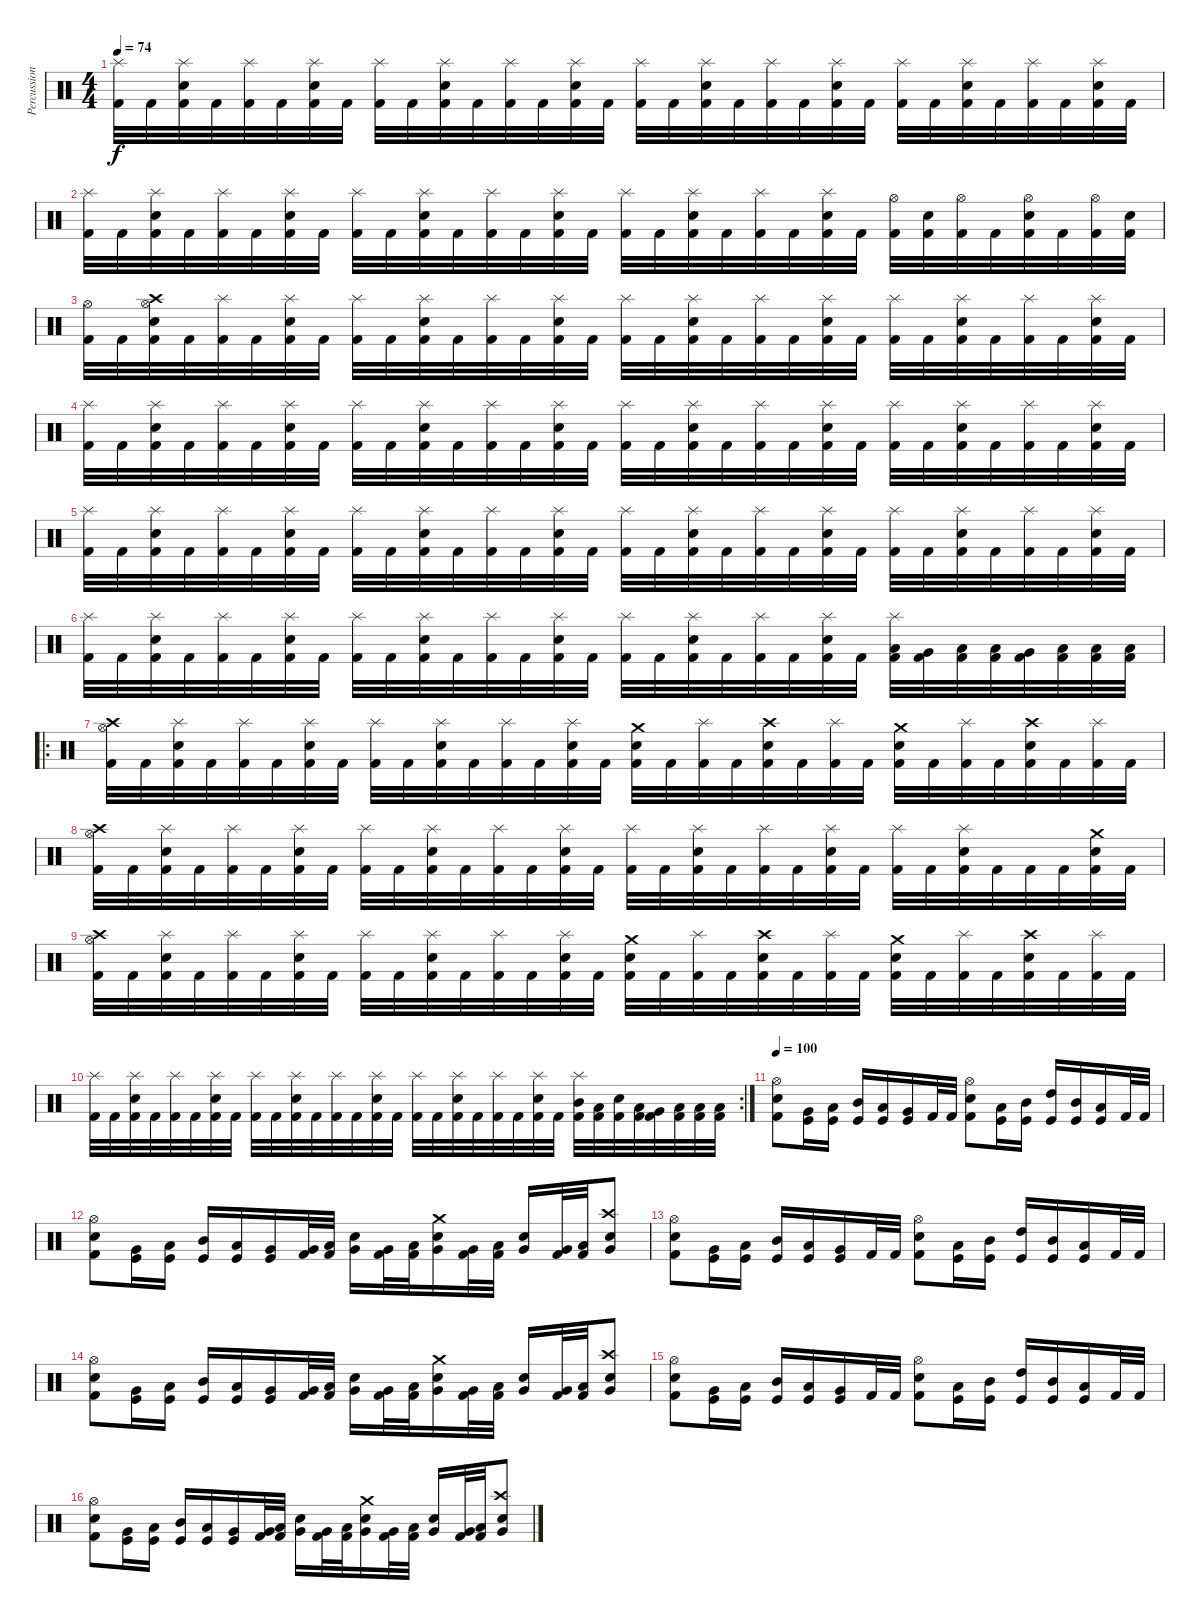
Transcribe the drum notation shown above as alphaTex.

\track ("Percussion" "Percussion") {instrument percussion}
\staff {score}
\articulation defaults
\ts (4 4)
\tempo 74
\clef neutral
\ks c
("Splash (hit)" "Kick (hit) 2").32{dy f} "Kick (hit) 2".32 ("Splash (hit)" "Snare (hit) 2" "Kick (hit) 2").32 "Kick (hit) 2".32 ("Splash (hit)" "Kick (hit) 2").32 "Kick (hit) 2".32 ("Splash (hit)" "Snare (hit) 2" "Kick (hit) 2").32 "Kick (hit) 2".32 ("Splash (hit)" "Kick (hit) 2").32 "Kick (hit) 2".32 ("Splash (hit)" "Snare (hit) 2" "Kick (hit) 2").32 "Kick (hit) 2".32 ("Splash (hit)" "Kick (hit) 2").32 "Kick (hit) 2".32 ("Splash (hit)" "Snare (hit) 2" "Kick (hit) 2").32 "Kick (hit) 2".32 ("Splash (hit)" "Kick (hit) 2").32 "Kick (hit) 2".32 ("Splash (hit)" "Snare (hit) 2" "Kick (hit) 2").32 "Kick (hit) 2".32 ("Splash (hit)" "Kick (hit) 2").32 "Kick (hit) 2".32 ("Splash (hit)" "Snare (hit) 2" "Kick (hit) 2").32 "Kick (hit) 2".32 ("Splash (hit)" "Kick (hit) 2").32 "Kick (hit) 2".32 ("Splash (hit)" "Snare (hit) 2" "Kick (hit) 2").32 "Kick (hit) 2".32 ("Splash (hit)" "Kick (hit) 2").32 "Kick (hit) 2".32 ("Splash (hit)" "Snare (hit) 2" "Kick (hit) 2").32 "Kick (hit) 2".32 |
("Splash (hit)" "Kick (hit) 2").32 "Kick (hit) 2".32 ("Splash (hit)" "Snare (hit) 2" "Kick (hit) 2").32 "Kick (hit) 2".32 ("Splash (hit)" "Kick (hit) 2").32 "Kick (hit) 2".32 ("Splash (hit)" "Snare (hit) 2" "Kick (hit) 2").32 "Kick (hit) 2".32 ("Splash (hit)" "Kick (hit) 2").32 "Kick (hit) 2".32 ("Splash (hit)" "Snare (hit) 2" "Kick (hit) 2").32 "Kick (hit) 2".32 ("Splash (hit)" "Kick (hit) 2").32 "Kick (hit) 2".32 ("Splash (hit)" "Snare (hit) 2" "Kick (hit) 2").32 "Kick (hit) 2".32 ("Splash (hit)" "Kick (hit) 2").32 "Kick (hit) 2".32 ("Splash (hit)" "Snare (hit) 2" "Kick (hit) 2").32 "Kick (hit) 2".32 ("Splash (hit)" "Kick (hit) 2").32 "Kick (hit) 2".32 ("Splash (hit)" "Snare (hit) 2" "Kick (hit) 2").32 "Kick (hit) 2".32 ("Hi-Hat (open)" "Kick (hit) 2").32 ("Snare (hit) 2" "Kick (hit) 2").32 ("Hi-Hat (open)" "Kick (hit) 2").32 "Kick (hit) 2".32 ("Hi-Hat (open)" "Snare (hit) 2" "Kick (hit) 2").32 "Kick (hit) 2".32 ("Hi-Hat (open)" "Kick (hit) 2").32 ("Snare (hit) 2" "Kick (hit) 2").32 |
("Hi-Hat (open)" "Kick (hit) 2").32 "Kick (hit) 2".32 ("Crash high (hit)" "Hi-Hat (open)" "Snare (hit) 2" "Kick (hit) 2").32 "Kick (hit) 2".32 ("Splash (hit)" "Kick (hit) 2").32 "Kick (hit) 2".32 ("Splash (hit)" "Snare (hit) 2" "Kick (hit) 2").32 "Kick (hit) 2".32 ("Splash (hit)" "Kick (hit) 2").32 "Kick (hit) 2".32 ("Splash (hit)" "Snare (hit) 2" "Kick (hit) 2").32 "Kick (hit) 2".32 ("Splash (hit)" "Kick (hit) 2").32 "Kick (hit) 2".32 ("Splash (hit)" "Snare (hit) 2" "Kick (hit) 2").32 "Kick (hit) 2".32 ("Splash (hit)" "Kick (hit) 2").32 "Kick (hit) 2".32 ("Splash (hit)" "Snare (hit) 2" "Kick (hit) 2").32 "Kick (hit) 2".32 ("Splash (hit)" "Kick (hit) 2").32 "Kick (hit) 2".32 ("Splash (hit)" "Snare (hit) 2" "Kick (hit) 2").32 "Kick (hit) 2".32 ("Splash (hit)" "Kick (hit) 2").32 "Kick (hit) 2".32 ("Splash (hit)" "Snare (hit) 2" "Kick (hit) 2").32 "Kick (hit) 2".32 ("Splash (hit)" "Kick (hit) 2").32 "Kick (hit) 2".32 ("Splash (hit)" "Snare (hit) 2" "Kick (hit) 2").32 "Kick (hit) 2".32 |
("Splash (hit)" "Kick (hit) 2").32 "Kick (hit) 2".32 ("Splash (hit)" "Snare (hit) 2" "Kick (hit) 2").32 "Kick (hit) 2".32 ("Splash (hit)" "Kick (hit) 2").32 "Kick (hit) 2".32 ("Splash (hit)" "Snare (hit) 2" "Kick (hit) 2").32 "Kick (hit) 2".32 ("Splash (hit)" "Kick (hit) 2").32 "Kick (hit) 2".32 ("Splash (hit)" "Snare (hit) 2" "Kick (hit) 2").32 "Kick (hit) 2".32 ("Splash (hit)" "Kick (hit) 2").32 "Kick (hit) 2".32 ("Splash (hit)" "Snare (hit) 2" "Kick (hit) 2").32 "Kick (hit) 2".32 ("Splash (hit)" "Kick (hit) 2").32 "Kick (hit) 2".32 ("Splash (hit)" "Snare (hit) 2" "Kick (hit) 2").32 "Kick (hit) 2".32 ("Splash (hit)" "Kick (hit) 2").32 "Kick (hit) 2".32 ("Splash (hit)" "Snare (hit) 2" "Kick (hit) 2").32 "Kick (hit) 2".32 ("Splash (hit)" "Kick (hit) 2").32 "Kick (hit) 2".32 ("Splash (hit)" "Snare (hit) 2" "Kick (hit) 2").32 "Kick (hit) 2".32 ("Splash (hit)" "Kick (hit) 2").32 "Kick (hit) 2".32 ("Splash (hit)" "Snare (hit) 2" "Kick (hit) 2").32 "Kick (hit) 2".32 |
("Splash (hit)" "Kick (hit) 2").32 "Kick (hit) 2".32 ("Splash (hit)" "Snare (hit) 2" "Kick (hit) 2").32 "Kick (hit) 2".32 ("Splash (hit)" "Kick (hit) 2").32 "Kick (hit) 2".32 ("Splash (hit)" "Snare (hit) 2" "Kick (hit) 2").32 "Kick (hit) 2".32 ("Splash (hit)" "Kick (hit) 2").32 "Kick (hit) 2".32 ("Splash (hit)" "Snare (hit) 2" "Kick (hit) 2").32 "Kick (hit) 2".32 ("Splash (hit)" "Kick (hit) 2").32 "Kick (hit) 2".32 ("Splash (hit)" "Snare (hit) 2" "Kick (hit) 2").32 "Kick (hit) 2".32 ("Splash (hit)" "Kick (hit) 2").32 "Kick (hit) 2".32 ("Splash (hit)" "Snare (hit) 2" "Kick (hit) 2").32 "Kick (hit) 2".32 ("Splash (hit)" "Kick (hit) 2").32 "Kick (hit) 2".32 ("Splash (hit)" "Snare (hit) 2" "Kick (hit) 2").32 "Kick (hit) 2".32 ("Splash (hit)" "Kick (hit) 2").32 "Kick (hit) 2".32 ("Splash (hit)" "Snare (hit) 2" "Kick (hit) 2").32 "Kick (hit) 2".32 ("Splash (hit)" "Kick (hit) 2").32 "Kick (hit) 2".32 ("Splash (hit)" "Snare (hit) 2" "Kick (hit) 2").32 "Kick (hit) 2".32 |
("Splash (hit)" "Kick (hit) 2").32 "Kick (hit) 2".32 ("Splash (hit)" "Snare (hit) 2" "Kick (hit) 2").32 "Kick (hit) 2".32 ("Splash (hit)" "Kick (hit) 2").32 "Kick (hit) 2".32 ("Splash (hit)" "Snare (hit) 2" "Kick (hit) 2").32 "Kick (hit) 2".32 ("Splash (hit)" "Kick (hit) 2").32 "Kick (hit) 2".32 ("Splash (hit)" "Snare (hit) 2" "Kick (hit) 2").32 "Kick (hit) 2".32 ("Splash (hit)" "Kick (hit) 2").32 "Kick (hit) 2".32 ("Splash (hit)" "Snare (hit) 2" "Kick (hit) 2").32 "Kick (hit) 2".32 ("Splash (hit)" "Kick (hit) 2").32 "Kick (hit) 2".32 ("Splash (hit)" "Snare (hit) 2" "Kick (hit) 2").32 "Kick (hit) 2".32 ("Splash (hit)" "Kick (hit) 2").32 "Kick (hit) 2".32 ("Splash (hit)" "Snare (hit) 2" "Kick (hit) 2").32 "Kick (hit) 2".32 ("Splash (hit)" "Low Tom (hit)" "Kick (hit) 2").32 ("Very Low Tom (hit)" "Kick (hit) 2").32 ("Low Tom (hit)" "Kick (hit) 2").32 ("Low Floor Tom (hit)" "Kick (hit) 2").32 ("Very Low Tom (hit)" "Kick (hit) 2").32 ("Low Floor Tom (hit)" "Kick (hit) 2").32 ("Low Floor Tom (hit)" "Kick (hit) 2").32 ("Low Floor Tom (hit)" "Kick (hit) 2").32 |
\ro
("Crash high (hit)" "Hi-Hat (open)" "Kick (hit) 2").32 "Kick (hit) 2".32 ("Splash (hit)" "Snare (hit) 2" "Kick (hit) 2").32 "Kick (hit) 2".32 ("Splash (hit)" "Kick (hit) 2").32 "Kick (hit) 2".32 ("Splash (hit)" "Snare (hit) 2" "Kick (hit) 2").32 "Kick (hit) 2".32 ("Splash (hit)" "Kick (hit) 2").32 "Kick (hit) 2".32 ("Splash (hit)" "Snare (hit) 2" "Kick (hit) 2").32 "Kick (hit) 2".32 ("Splash (hit)" "Kick (hit) 2").32 "Kick (hit) 2".32 ("Splash (hit)" "Snare (hit) 2" "Kick (hit) 2").32 "Kick (hit) 2".32 ("Crash medium (hit)" "Snare (hit) 2" "Kick (hit) 2").32 "Kick (hit) 2".32 ("Splash (hit)" "Kick (hit) 2").32 "Kick (hit) 2".32 ("Crash high (hit)" "Snare (hit) 2" "Kick (hit) 2").32 "Kick (hit) 2".32 ("Splash (hit)" "Kick (hit) 2").32 "Kick (hit) 2".32 ("Crash medium (hit)" "Snare (hit) 2" "Kick (hit) 2").32 "Kick (hit) 2".32 ("Splash (hit)" "Kick (hit) 2").32 "Kick (hit) 2".32 ("Crash high (hit)" "Snare (hit) 2" "Kick (hit) 2").32 "Kick (hit) 2".32 ("Splash (hit)" "Kick (hit) 2").32 "Kick (hit) 2".32 |
("Crash high (hit)" "Hi-Hat (open)" "Kick (hit) 2").32 "Kick (hit) 2".32 ("Splash (hit)" "Snare (hit) 2" "Kick (hit) 2").32 "Kick (hit) 2".32 ("Splash (hit)" "Kick (hit) 2").32 "Kick (hit) 2".32 ("Splash (hit)" "Snare (hit) 2" "Kick (hit) 2").32 "Kick (hit) 2".32 ("Splash (hit)" "Kick (hit) 2").32 "Kick (hit) 2".32 ("Splash (hit)" "Snare (hit) 2" "Kick (hit) 2").32 "Kick (hit) 2".32 ("Splash (hit)" "Kick (hit) 2").32 "Kick (hit) 2".32 ("Splash (hit)" "Snare (hit) 2" "Kick (hit) 2").32 "Kick (hit) 2".32 ("Splash (hit)" "Kick (hit) 2").32 "Kick (hit) 2".32 ("Splash (hit)" "Snare (hit) 2" "Kick (hit) 2").32 "Kick (hit) 2".32 ("Splash (hit)" "Kick (hit) 2").32 "Kick (hit) 2".32 ("Splash (hit)" "Snare (hit) 2" "Kick (hit) 2").32 "Kick (hit) 2".32 ("Splash (hit)" "Kick (hit) 2").32 "Kick (hit) 2".32 ("Splash (hit)" "Snare (hit) 2" "Kick (hit) 2").32 "Kick (hit) 2".32 "Kick (hit) 2".32 "Kick (hit) 2".32 ("Crash medium (hit)" "Snare (hit) 2" "Kick (hit) 2").32 "Kick (hit) 2".32 |
("Crash high (hit)" "Hi-Hat (open)" "Kick (hit) 2").32 "Kick (hit) 2".32 ("Splash (hit)" "Snare (hit) 2" "Kick (hit) 2").32 "Kick (hit) 2".32 ("Splash (hit)" "Kick (hit) 2").32 "Kick (hit) 2".32 ("Splash (hit)" "Snare (hit) 2" "Kick (hit) 2").32 "Kick (hit) 2".32 ("Splash (hit)" "Kick (hit) 2").32 "Kick (hit) 2".32 ("Splash (hit)" "Snare (hit) 2" "Kick (hit) 2").32 "Kick (hit) 2".32 ("Splash (hit)" "Kick (hit) 2").32 "Kick (hit) 2".32 ("Splash (hit)" "Snare (hit) 2" "Kick (hit) 2").32 "Kick (hit) 2".32 ("Crash medium (hit)" "Snare (hit) 2" "Kick (hit) 2").32 "Kick (hit) 2".32 ("Splash (hit)" "Kick (hit) 2").32 "Kick (hit) 2".32 ("Crash high (hit)" "Snare (hit) 2" "Kick (hit) 2").32 "Kick (hit) 2".32 ("Splash (hit)" "Kick (hit) 2").32 "Kick (hit) 2".32 ("Crash medium (hit)" "Snare (hit) 2" "Kick (hit) 2").32 "Kick (hit) 2".32 ("Splash (hit)" "Kick (hit) 2").32 "Kick (hit) 2".32 ("Crash high (hit)" "Snare (hit) 2" "Kick (hit) 2").32 "Kick (hit) 2".32 ("Splash (hit)" "Kick (hit) 2").32 "Kick (hit) 2".32 |
\rc 2
("Splash (hit)" "Kick (hit) 2").32 "Kick (hit) 2".32 ("Splash (hit)" "Snare (hit) 2" "Kick (hit) 2").32 "Kick (hit) 2".32 ("Splash (hit)" "Kick (hit) 2").32 "Kick (hit) 2".32 ("Splash (hit)" "Snare (hit) 2" "Kick (hit) 2").32 "Kick (hit) 2".32 ("Splash (hit)" "Kick (hit) 2").32 "Kick (hit) 2".32 ("Splash (hit)" "Snare (hit) 2" "Kick (hit) 2").32 "Kick (hit) 2".32 ("Splash (hit)" "Kick (hit) 2").32 "Kick (hit) 2".32 ("Splash (hit)" "Snare (hit) 2" "Kick (hit) 2").32 "Kick (hit) 2".32 ("Splash (hit)" "Kick (hit) 2").32 "Kick (hit) 2".32 ("Splash (hit)" "Snare (hit) 2" "Kick (hit) 2").32 "Kick (hit) 2".32 ("Splash (hit)" "Kick (hit) 2").32 "Kick (hit) 2".32 ("Splash (hit)" "Snare (hit) 2" "Kick (hit) 2").32 "Kick (hit) 2".32 ("Splash (hit)" "Mid Tom (hit)" "Kick (hit) 2").32 ("Low Tom (hit)" "Kick (hit) 2").32 ("Snare (hit) 2" "Kick (hit) 2").32 ("Low Floor Tom (hit)" "Kick (hit) 2").32 ("Very Low Tom (hit)" "Kick (hit) 2").32 ("Low Floor Tom (hit)" "Kick (hit) 2").32 ("Low Floor Tom (hit)" "Kick (hit) 2").32 ("Low Floor Tom (hit)" "Kick (hit) 2").32 |
\tempo 100
("Hi-Hat (open)" "Snare (hit) 2" "Kick (hit) 2").8 ("Very Low Tom (hit)" "Kick (hit)").16 ("Low Tom (hit)" "Kick (hit)").16 ("Mid Tom (hit)" "Kick (hit)").16 ("Low Tom (hit)" "Kick (hit)").16 ("Very Low Tom (hit)" "Kick (hit)").16 "Kick (hit) 2".32 "Kick (hit) 2".32 ("Hi-Hat (open)" "Snare (hit) 2" "Kick (hit) 2").8 ("Low Tom (hit)" "Kick (hit)").16 ("Mid Tom (hit)" "Kick (hit)").16 ("High Tom (hit)" "Kick (hit)").16 ("Mid Tom (hit)" "Kick (hit)").16 ("Low Tom (hit)" "Kick (hit)").16 "Kick (hit) 2".32 "Kick (hit) 2".32 |
("Hi-Hat (open)" "Snare (hit) 2" "Kick (hit) 2").8 ("Very Low Tom (hit)" "Kick (hit)").16 ("Low Tom (hit)" "Kick (hit)").16 ("Mid Tom (hit)" "Kick (hit)").16 ("Low Tom (hit)" "Kick (hit)").16 ("Very Low Tom (hit)" "Kick (hit)").16 ("Very Low Tom (hit)" "Kick (hit) 2").32 ("Low Tom (hit)" "Kick (hit) 2").32 ("Snare (hit) 2" "Very Low Tom (hit)").16 ("Very Low Tom (hit)" "Kick (hit) 2").32 ("Low Tom (hit)" "Kick (hit) 2").32 ("Crash medium (hit)" "Snare (hit) 2" "Very Low Tom (hit)").16 ("Very Low Tom (hit)" "Kick (hit) 2").32 ("Low Tom (hit)" "Kick (hit) 2").32 ("Snare (hit) 2" "Very Low Tom (hit)").16 ("Very Low Tom (hit)" "Kick (hit) 2").32 ("Low Tom (hit)" "Kick (hit) 2").32 ("Crash high (hit)" "Snare (hit) 2" "Very Low Tom (hit)").8 |
("Hi-Hat (open)" "Snare (hit) 2" "Kick (hit) 2").8 ("Very Low Tom (hit)" "Kick (hit)").16 ("Low Tom (hit)" "Kick (hit)").16 ("Mid Tom (hit)" "Kick (hit)").16 ("Low Tom (hit)" "Kick (hit)").16 ("Very Low Tom (hit)" "Kick (hit)").16 "Kick (hit) 2".32 "Kick (hit) 2".32 ("Hi-Hat (open)" "Snare (hit) 2" "Kick (hit) 2").8 ("Low Tom (hit)" "Kick (hit)").16 ("Mid Tom (hit)" "Kick (hit)").16 ("High Tom (hit)" "Kick (hit)").16 ("Mid Tom (hit)" "Kick (hit)").16 ("Low Tom (hit)" "Kick (hit)").16 "Kick (hit) 2".32 "Kick (hit) 2".32 |
("Hi-Hat (open)" "Snare (hit) 2" "Kick (hit) 2").8 ("Very Low Tom (hit)" "Kick (hit)").16 ("Low Tom (hit)" "Kick (hit)").16 ("Mid Tom (hit)" "Kick (hit)").16 ("Low Tom (hit)" "Kick (hit)").16 ("Very Low Tom (hit)" "Kick (hit)").16 ("Very Low Tom (hit)" "Kick (hit) 2").32 ("Low Tom (hit)" "Kick (hit) 2").32 ("Snare (hit) 2" "Very Low Tom (hit)").16 ("Very Low Tom (hit)" "Kick (hit) 2").32 ("Low Tom (hit)" "Kick (hit) 2").32 ("Crash medium (hit)" "Snare (hit) 2" "Very Low Tom (hit)").16 ("Very Low Tom (hit)" "Kick (hit) 2").32 ("Low Tom (hit)" "Kick (hit) 2").32 ("Snare (hit) 2" "Very Low Tom (hit)").16 ("Very Low Tom (hit)" "Kick (hit) 2").32 ("Low Tom (hit)" "Kick (hit) 2").32 ("Crash high (hit)" "Snare (hit) 2" "Very Low Tom (hit)").8 |
("Hi-Hat (open)" "Snare (hit) 2" "Kick (hit) 2").8 ("Very Low Tom (hit)" "Kick (hit)").16 ("Low Tom (hit)" "Kick (hit)").16 ("Mid Tom (hit)" "Kick (hit)").16 ("Low Tom (hit)" "Kick (hit)").16 ("Very Low Tom (hit)" "Kick (hit)").16 "Kick (hit) 2".32 "Kick (hit) 2".32 ("Hi-Hat (open)" "Snare (hit) 2" "Kick (hit) 2").8 ("Low Tom (hit)" "Kick (hit)").16 ("Mid Tom (hit)" "Kick (hit)").16 ("High Tom (hit)" "Kick (hit)").16 ("Mid Tom (hit)" "Kick (hit)").16 ("Low Tom (hit)" "Kick (hit)").16 "Kick (hit) 2".32 "Kick (hit) 2".32 |
("Hi-Hat (open)" "Snare (hit) 2" "Kick (hit) 2").8 ("Very Low Tom (hit)" "Kick (hit)").16 ("Low Tom (hit)" "Kick (hit)").16 ("Mid Tom (hit)" "Kick (hit)").16 ("Low Tom (hit)" "Kick (hit)").16 ("Very Low Tom (hit)" "Kick (hit)").16 ("Very Low Tom (hit)" "Kick (hit) 2").32 ("Low Tom (hit)" "Kick (hit) 2").32 ("Snare (hit) 2" "Very Low Tom (hit)").16 ("Very Low Tom (hit)" "Kick (hit) 2").32 ("Low Tom (hit)" "Kick (hit) 2").32 ("Crash medium (hit)" "Snare (hit) 2" "Very Low Tom (hit)").16 ("Very Low Tom (hit)" "Kick (hit) 2").32 ("Low Tom (hit)" "Kick (hit) 2").32 ("Snare (hit) 2" "Very Low Tom (hit)").16 ("Very Low Tom (hit)" "Kick (hit) 2").32 ("Low Tom (hit)" "Kick (hit) 2").32 ("Crash high (hit)" "Snare (hit) 2" "Very Low Tom (hit)").8
